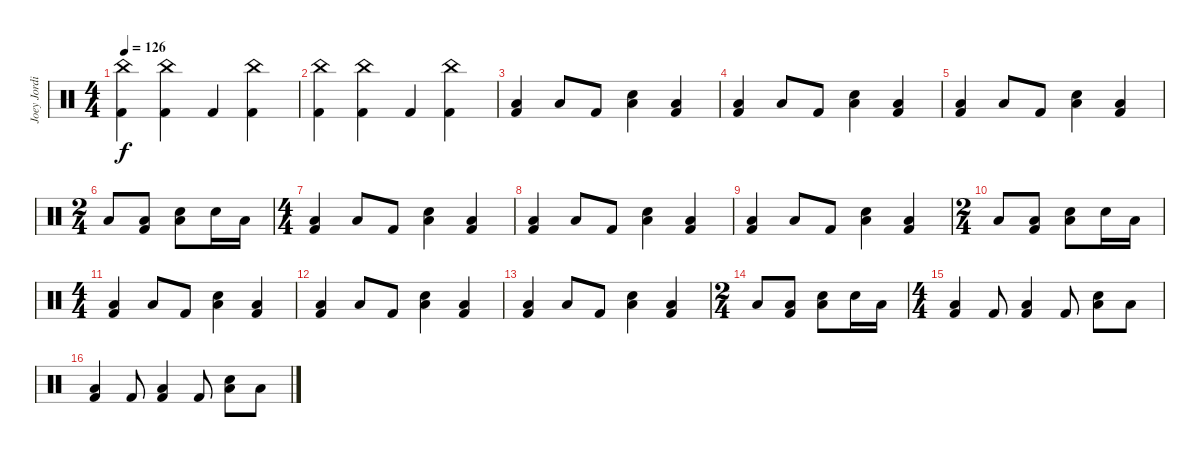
\track ("Joey Jordison" "Joey Jordi") {instrument percussion}
\staff {score}
\articulation defaults
\ts (4 4)
\tempo 126
\clef neutral
\ks c
("China (hit)" "Kick (hit) 2").4{dy f} ("China (hit)" "Kick (hit) 2").4 "Kick (hit) 2".4 ("China (hit)" "Kick (hit) 2").4 |
("China (hit)" "Kick (hit) 2").4 ("China (hit)" "Kick (hit) 2").4 "Kick (hit) 2".4 ("China (hit)" "Kick (hit) 2").4 |
("Low Tom (hit)" "Kick (hit) 2").4 "Low Tom (hit)".8 "Kick (hit) 2".8 ("Low Tom (hit)" "Electric Snare (hit)").4 ("Low Tom (hit)" "Kick (hit) 2").4 |
("Low Tom (hit)" "Kick (hit) 2").4 "Low Tom (hit)".8 "Kick (hit) 2".8 ("Low Tom (hit)" "Snare (hit) 2").4 ("Low Tom (hit)" "Kick (hit) 2").4 |
("Low Tom (hit)" "Kick (hit) 2").4 "Low Tom (hit)".8 "Kick (hit) 2".8 ("Low Tom (hit)" "Snare (hit) 2").4 ("Low Tom (hit)" "Kick (hit) 2").4 |
\ts (2 4)
"Low Tom (hit)".8 ("Low Tom (hit)" "Kick (hit) 2").8 ("Low Tom (hit)" "Snare (hit) 2").8 "Snare (hit) 2".16 "Low Tom (hit)".16 |
\ts (4 4)
("Low Tom (hit)" "Kick (hit) 2").4 "Low Tom (hit)".8 "Kick (hit) 2".8 ("Low Tom (hit)" "Electric Snare (hit)").4 ("Low Tom (hit)" "Kick (hit) 2").4 |
("Low Tom (hit)" "Kick (hit) 2").4 "Low Tom (hit)".8 "Kick (hit) 2".8 ("Low Tom (hit)" "Snare (hit) 2").4 ("Low Tom (hit)" "Kick (hit) 2").4 |
("Low Tom (hit)" "Kick (hit) 2").4 "Low Tom (hit)".8 "Kick (hit) 2".8 ("Low Tom (hit)" "Snare (hit) 2").4 ("Low Tom (hit)" "Kick (hit) 2").4 |
\ts (2 4)
"Low Tom (hit)".8 ("Low Tom (hit)" "Kick (hit) 2").8 ("Low Tom (hit)" "Snare (hit) 2").8 "Snare (hit) 2".16 "Low Tom (hit)".16 |
\ts (4 4)
("Low Tom (hit)" "Kick (hit) 2").4 "Low Tom (hit)".8 "Kick (hit) 2".8 ("Low Tom (hit)" "Electric Snare (hit)").4 ("Low Tom (hit)" "Kick (hit) 2").4 |
("Low Tom (hit)" "Kick (hit) 2").4 "Low Tom (hit)".8 "Kick (hit) 2".8 ("Low Tom (hit)" "Snare (hit) 2").4 ("Low Tom (hit)" "Kick (hit) 2").4 |
("Low Tom (hit)" "Kick (hit) 2").4 "Low Tom (hit)".8 "Kick (hit) 2".8 ("Low Tom (hit)" "Snare (hit) 2").4 ("Low Tom (hit)" "Kick (hit) 2").4 |
\ts (2 4)
"Low Tom (hit)".8 ("Low Tom (hit)" "Kick (hit) 2").8 ("Low Tom (hit)" "Snare (hit) 2").8 "Snare (hit) 2".16 "Low Tom (hit)".16 |
\ts (4 4)
("Low Tom (hit)" "Kick (hit) 2").4 "Kick (hit) 2".8 ("Low Tom (hit)" "Kick (hit) 2").4 "Kick (hit) 2".8 ("Low Tom (hit)" "Snare (hit) 2").8 "Low Tom (hit)".8 |
("Low Tom (hit)" "Kick (hit) 2").4 "Kick (hit) 2".8 ("Low Tom (hit)" "Kick (hit) 2").4 "Kick (hit) 2".8 ("Low Tom (hit)" "Snare (hit) 2").8 "Low Tom (hit)".8
